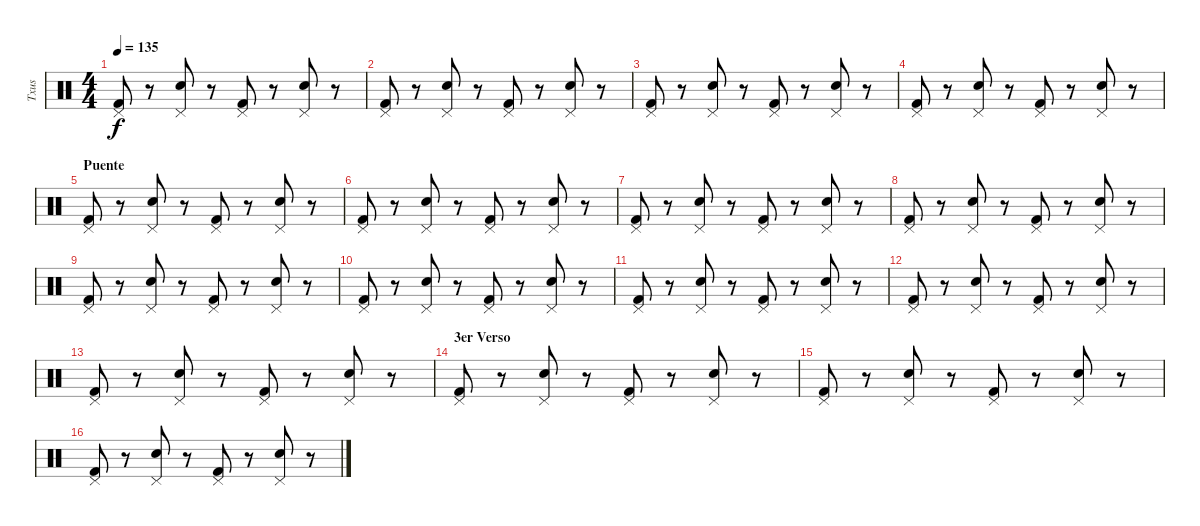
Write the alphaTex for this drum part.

\track ("Txus" "Txus") {instrument percussion}
\staff {score}
\articulation defaults
\ts (4 4)
\tempo 135
\clef neutral
\ks c
("Pedal Hi-Hat (hit)" "Kick (hit) 2").8{dy f} r.8 ("Pedal Hi-Hat (hit)" "Snare (hit) 2").8 r.8 ("Pedal Hi-Hat (hit)" "Kick (hit) 2").8 r.8 ("Pedal Hi-Hat (hit)" "Snare (hit) 2").8 r.8 |
("Pedal Hi-Hat (hit)" "Kick (hit) 2").8 r.8 ("Pedal Hi-Hat (hit)" "Snare (hit) 2").8 r.8 ("Pedal Hi-Hat (hit)" "Kick (hit) 2").8 r.8 ("Pedal Hi-Hat (hit)" "Snare (hit) 2").8 r.8 |
("Pedal Hi-Hat (hit)" "Kick (hit) 2").8 r.8 ("Pedal Hi-Hat (hit)" "Snare (hit) 2").8 r.8 ("Pedal Hi-Hat (hit)" "Kick (hit) 2").8 r.8 ("Pedal Hi-Hat (hit)" "Snare (hit) 2").8 r.8 |
("Pedal Hi-Hat (hit)" "Kick (hit) 2").8 r.8 ("Pedal Hi-Hat (hit)" "Snare (hit) 2").8 r.8 ("Pedal Hi-Hat (hit)" "Kick (hit) 2").8 r.8 ("Pedal Hi-Hat (hit)" "Snare (hit) 2").8 r.8 |
\section ("" "Puente")
("Pedal Hi-Hat (hit)" "Kick (hit) 2").8 r.8 ("Pedal Hi-Hat (hit)" "Snare (hit) 2").8 r.8 ("Pedal Hi-Hat (hit)" "Kick (hit) 2").8 r.8 ("Pedal Hi-Hat (hit)" "Snare (hit) 2").8 r.8 |
("Pedal Hi-Hat (hit)" "Kick (hit) 2").8 r.8 ("Pedal Hi-Hat (hit)" "Snare (hit) 2").8 r.8 ("Pedal Hi-Hat (hit)" "Kick (hit) 2").8 r.8 ("Pedal Hi-Hat (hit)" "Snare (hit) 2").8 r.8 |
("Pedal Hi-Hat (hit)" "Kick (hit) 2").8 r.8 ("Pedal Hi-Hat (hit)" "Snare (hit) 2").8 r.8 ("Pedal Hi-Hat (hit)" "Kick (hit) 2").8 r.8 ("Pedal Hi-Hat (hit)" "Snare (hit) 2").8 r.8 |
("Pedal Hi-Hat (hit)" "Kick (hit) 2").8 r.8 ("Pedal Hi-Hat (hit)" "Snare (hit) 2").8 r.8 ("Pedal Hi-Hat (hit)" "Kick (hit) 2").8 r.8 ("Pedal Hi-Hat (hit)" "Snare (hit) 2").8 r.8 |
("Pedal Hi-Hat (hit)" "Kick (hit) 2").8 r.8 ("Pedal Hi-Hat (hit)" "Snare (hit) 2").8 r.8 ("Pedal Hi-Hat (hit)" "Kick (hit) 2").8 r.8 ("Pedal Hi-Hat (hit)" "Snare (hit) 2").8 r.8 |
("Pedal Hi-Hat (hit)" "Kick (hit) 2").8 r.8 ("Pedal Hi-Hat (hit)" "Snare (hit) 2").8 r.8 ("Pedal Hi-Hat (hit)" "Kick (hit) 2").8 r.8 ("Pedal Hi-Hat (hit)" "Snare (hit) 2").8 r.8 |
("Pedal Hi-Hat (hit)" "Kick (hit) 2").8 r.8 ("Pedal Hi-Hat (hit)" "Snare (hit) 2").8 r.8 ("Pedal Hi-Hat (hit)" "Kick (hit) 2").8 r.8 ("Pedal Hi-Hat (hit)" "Snare (hit) 2").8 r.8 |
("Pedal Hi-Hat (hit)" "Kick (hit) 2").8 r.8 ("Pedal Hi-Hat (hit)" "Snare (hit) 2").8 r.8 ("Pedal Hi-Hat (hit)" "Kick (hit) 2").8 r.8 ("Pedal Hi-Hat (hit)" "Snare (hit) 2").8 r.8 |
("Pedal Hi-Hat (hit)" "Kick (hit) 2").8 r.8 ("Pedal Hi-Hat (hit)" "Snare (hit) 2").8 r.8 ("Pedal Hi-Hat (hit)" "Kick (hit) 2").8 r.8 ("Pedal Hi-Hat (hit)" "Snare (hit) 2").8 r.8 |
\section ("" "3er Verso")
("Pedal Hi-Hat (hit)" "Kick (hit) 2").8 r.8 ("Pedal Hi-Hat (hit)" "Snare (hit) 2").8 r.8 ("Pedal Hi-Hat (hit)" "Kick (hit) 2").8 r.8 ("Pedal Hi-Hat (hit)" "Snare (hit) 2").8 r.8 |
("Pedal Hi-Hat (hit)" "Kick (hit) 2").8 r.8 ("Pedal Hi-Hat (hit)" "Snare (hit) 2").8 r.8 ("Pedal Hi-Hat (hit)" "Kick (hit) 2").8 r.8 ("Pedal Hi-Hat (hit)" "Snare (hit) 2").8 r.8 |
("Pedal Hi-Hat (hit)" "Kick (hit) 2").8 r.8 ("Pedal Hi-Hat (hit)" "Snare (hit) 2").8 r.8 ("Pedal Hi-Hat (hit)" "Kick (hit) 2").8 r.8 ("Pedal Hi-Hat (hit)" "Snare (hit) 2").8 r.8
